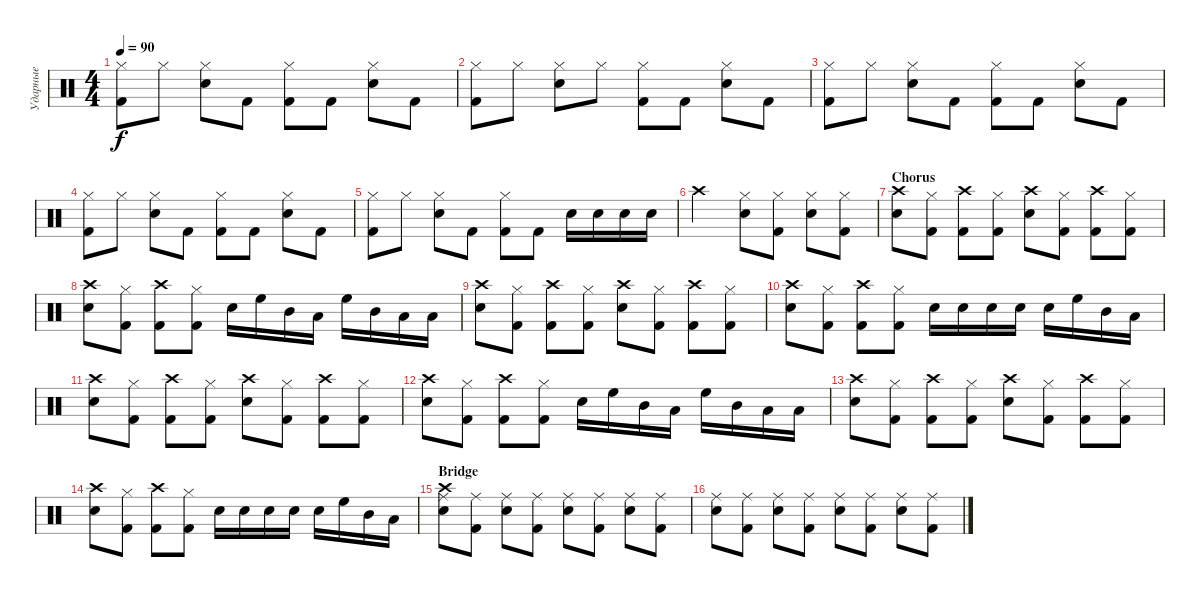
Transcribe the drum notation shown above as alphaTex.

\track ("Ударные" "Ударные") {instrument percussion}
\staff {score}
\articulation defaults
\ts (4 4)
\tempo 90
\clef neutral
\ks c
("Hi-Hat (closed)" "Kick (hit) 2").8{dy f} "Hi-Hat (closed)".8 ("Hi-Hat (closed)" "Snare (hit) 2").8 "Kick (hit) 2".8 ("Hi-Hat (closed)" "Kick (hit) 2").8 "Kick (hit) 2".8 ("Hi-Hat (closed)" "Snare (hit) 2").8 "Kick (hit) 2".8 |
("Hi-Hat (closed)" "Kick (hit) 2").8 "Hi-Hat (closed)".8 ("Snare (hit) 2" "Hi-Hat (closed)").8 "Hi-Hat (closed)".8 ("Hi-Hat (closed)" "Kick (hit) 2").8 "Kick (hit) 2".8 ("Hi-Hat (closed)" "Snare (hit) 2").8 "Kick (hit) 2".8 |
("Hi-Hat (closed)" "Kick (hit) 2").8 "Hi-Hat (closed)".8 ("Hi-Hat (closed)" "Snare (hit) 2").8 "Kick (hit) 2".8 ("Hi-Hat (closed)" "Kick (hit) 2").8 "Kick (hit) 2".8 ("Hi-Hat (closed)" "Snare (hit) 2").8 "Kick (hit) 2".8 |
("Hi-Hat (closed)" "Kick (hit) 2").8 "Hi-Hat (closed)".8 ("Hi-Hat (closed)" "Snare (hit) 2").8 "Kick (hit) 2".8 ("Hi-Hat (closed)" "Kick (hit) 2").8 "Kick (hit) 2".8 ("Hi-Hat (closed)" "Snare (hit) 2").8 "Kick (hit) 2".8 |
("Hi-Hat (closed)" "Kick (hit) 2").8 "Hi-Hat (closed)".8 ("Hi-Hat (closed)" "Snare (hit) 2").8 "Kick (hit) 2".8 ("Hi-Hat (closed)" "Kick (hit) 2").8 "Kick (hit) 2".8 "Snare (hit) 2".16 "Snare (hit) 2".16 "Snare (hit) 2".16 "Snare (hit) 2".16 |
"Crash high (hit)".2 ("Hi-Hat (closed)" "Snare (hit) 2").8 ("Hi-Hat (closed)" "Kick (hit) 2").8 ("Hi-Hat (closed)" "Snare (hit) 2").8 ("Hi-Hat (closed)" "Kick (hit) 2").8 |
\section ("" "Chorus")
("Snare (hit) 2" "Crash high (hit)").8 ("Hi-Hat (closed)" "Kick (hit) 2").8 ("Kick (hit) 2" "Crash high (hit)").8 ("Hi-Hat (closed)" "Kick (hit) 2").8 ("Snare (hit) 2" "Crash high (hit)").8 ("Hi-Hat (closed)" "Kick (hit) 2").8 ("Crash high (hit)" "Kick (hit) 2").8 ("Hi-Hat (closed)" "Kick (hit) 2").8 |
("Snare (hit) 2" "Crash high (hit)").8 ("Hi-Hat (closed)" "Kick (hit) 2").8 ("Kick (hit) 2" "Crash high (hit)").8 ("Hi-Hat (closed)" "Kick (hit) 2").8 "Snare (hit) 2".16 "High Floor Tom (hit)".16 "Mid Tom (hit)".16 "Low Tom (hit)".16 "High Floor Tom (hit)".16 "Mid Tom (hit)".16 "Low Tom (hit)".16 "Low Floor Tom (hit)".16 |
("Snare (hit) 2" "Crash high (hit)").8 ("Hi-Hat (closed)" "Kick (hit) 2").8 ("Kick (hit) 2" "Crash high (hit)").8 ("Hi-Hat (closed)" "Kick (hit) 2").8 ("Snare (hit) 2" "Crash high (hit)").8 ("Hi-Hat (closed)" "Kick (hit) 2").8 ("Crash high (hit)" "Kick (hit) 2").8 ("Hi-Hat (closed)" "Kick (hit) 2").8 |
("Snare (hit) 2" "Crash high (hit)").8 ("Hi-Hat (closed)" "Kick (hit) 2").8 ("Kick (hit) 2" "Crash high (hit)").8 ("Hi-Hat (closed)" "Kick (hit) 2").8 "Snare (hit) 2".16 "Snare (hit) 2".16 "Snare (hit) 2".16 "Snare (hit) 2".16 "Snare (hit) 2".16 "High Floor Tom (hit)".16 "Mid Tom (hit)".16 "Low Tom (hit)".16 |
("Snare (hit) 2" "Crash high (hit)").8 ("Hi-Hat (closed)" "Kick (hit) 2").8 ("Kick (hit) 2" "Crash high (hit)").8 ("Hi-Hat (closed)" "Kick (hit) 2").8 ("Snare (hit) 2" "Crash high (hit)").8 ("Hi-Hat (closed)" "Kick (hit) 2").8 ("Crash high (hit)" "Kick (hit) 2").8 ("Hi-Hat (closed)" "Kick (hit) 2").8 |
("Snare (hit) 2" "Crash high (hit)").8 ("Hi-Hat (closed)" "Kick (hit) 2").8 ("Kick (hit) 2" "Crash high (hit)").8 ("Hi-Hat (closed)" "Kick (hit) 2").8 "Snare (hit) 2".16 "High Floor Tom (hit)".16 "Mid Tom (hit)".16 "Low Tom (hit)".16 "High Floor Tom (hit)".16 "Mid Tom (hit)".16 "Low Tom (hit)".16 "Low Floor Tom (hit)".16 |
("Snare (hit) 2" "Crash high (hit)").8 ("Hi-Hat (closed)" "Kick (hit) 2").8 ("Kick (hit) 2" "Crash high (hit)").8 ("Hi-Hat (closed)" "Kick (hit) 2").8 ("Snare (hit) 2" "Crash high (hit)").8 ("Hi-Hat (closed)" "Kick (hit) 2").8 ("Crash high (hit)" "Kick (hit) 2").8 ("Hi-Hat (closed)" "Kick (hit) 2").8 |
("Snare (hit) 2" "Crash high (hit)").8 ("Hi-Hat (closed)" "Kick (hit) 2").8 ("Kick (hit) 2" "Crash high (hit)").8 ("Hi-Hat (closed)" "Kick (hit) 2").8 "Snare (hit) 2".16 "Snare (hit) 2".16 "Snare (hit) 2".16 "Snare (hit) 2".16 "Snare (hit) 2".16 "High Floor Tom (hit)".16 "Mid Tom (hit)".16 "Low Tom (hit)".16 |
\section ("" "Bridge")
("Crash high (hit)" "Ride (middle)" "Snare (hit) 2").8 ("Ride (middle)" "Kick (hit) 2").8 ("Ride (middle)" "Snare (hit) 2").8 ("Ride (middle)" "Kick (hit) 2").8 ("Ride (middle)" "Snare (hit) 2").8 ("Ride (middle)" "Kick (hit) 2").8 ("Ride (middle)" "Snare (hit) 2").8 ("Ride (middle)" "Kick (hit) 2").8 |
("Ride (middle)" "Snare (hit) 2").8 ("Ride (middle)" "Kick (hit) 2").8 ("Ride (middle)" "Snare (hit) 2").8 ("Ride (middle)" "Kick (hit) 2").8 ("Ride (middle)" "Snare (hit) 2").8 ("Ride (middle)" "Kick (hit) 2").8 ("Ride (middle)" "Snare (hit) 2").8 ("Ride (middle)" "Kick (hit) 2").8
